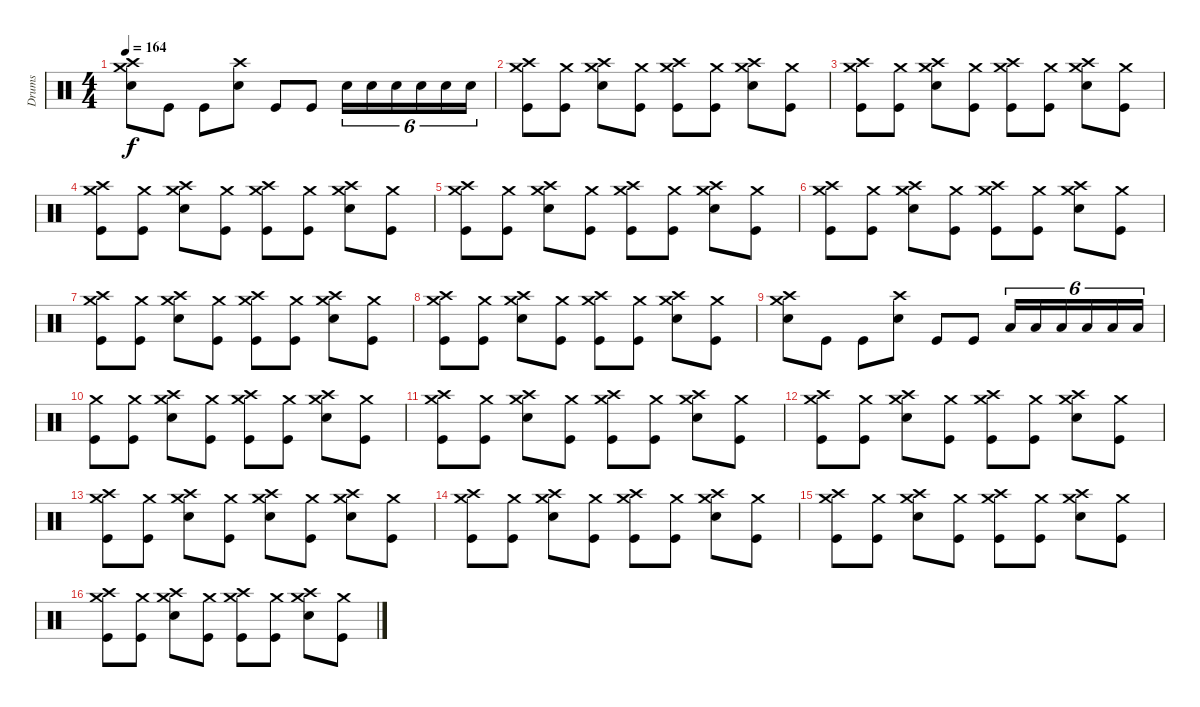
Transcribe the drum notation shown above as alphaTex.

\track ("Drums" "Drums") {instrument percussion}
\staff {score}
\articulation defaults
\ts (4 4)
\tempo 164
\clef neutral
\ks c
("Snare (hit) 2" "Crash high (hit)" "Crash medium (hit)").8{dy f} "Kick (hit)".8 "Kick (hit)".8 ("Snare (hit) 2" "Crash high (hit)").8 "Kick (hit)".8 "Kick (hit)".8 "Snare (hit) 2".16{tu (6 4)} "Snare (hit) 2".16{tu (6 4)} "Snare (hit) 2".16{tu (6 4)} "Snare (hit) 2".16{tu (6 4)} "Snare (hit) 2".16{tu (6 4)} "Snare (hit) 2".16{tu (6 4)} |
("Crash medium (hit)" "Kick (hit)" "Crash high (hit)").8 ("Crash medium (hit)" "Kick (hit)").8 ("Snare (hit) 2" "Crash medium (hit)" "Crash high (hit)").8 ("Crash medium (hit)" "Kick (hit)").8 ("Crash medium (hit)" "Kick (hit)" "Crash high (hit)").8 ("Crash medium (hit)" "Kick (hit)").8 ("Snare (hit) 2" "Crash medium (hit)" "Crash high (hit)").8 ("Crash medium (hit)" "Kick (hit)").8 |
("Crash medium (hit)" "Kick (hit)" "Crash high (hit)").8 ("Crash medium (hit)" "Kick (hit)").8 ("Snare (hit) 2" "Crash medium (hit)" "Crash high (hit)").8 ("Crash medium (hit)" "Kick (hit)").8 ("Crash medium (hit)" "Kick (hit)" "Crash high (hit)").8 ("Crash medium (hit)" "Kick (hit)").8 ("Snare (hit) 2" "Crash medium (hit)" "Crash high (hit)").8 ("Crash medium (hit)" "Kick (hit)").8 |
("Crash medium (hit)" "Kick (hit)" "Crash high (hit)").8 ("Crash medium (hit)" "Kick (hit)").8 ("Snare (hit) 2" "Crash medium (hit)" "Crash high (hit)").8 ("Crash medium (hit)" "Kick (hit)").8 ("Crash medium (hit)" "Kick (hit)" "Crash high (hit)").8 ("Crash medium (hit)" "Kick (hit)").8 ("Snare (hit) 2" "Crash medium (hit)" "Crash high (hit)").8 ("Crash medium (hit)" "Kick (hit)").8 |
("Crash medium (hit)" "Kick (hit)" "Crash high (hit)").8 ("Crash medium (hit)" "Kick (hit)").8 ("Snare (hit) 2" "Crash medium (hit)" "Crash high (hit)").8 ("Crash medium (hit)" "Kick (hit)").8 ("Crash medium (hit)" "Kick (hit)" "Crash high (hit)").8 ("Crash medium (hit)" "Kick (hit)").8 ("Snare (hit) 2" "Crash medium (hit)" "Crash high (hit)").8 ("Crash medium (hit)" "Kick (hit)").8 |
("Crash medium (hit)" "Kick (hit)" "Crash high (hit)").8 ("Crash medium (hit)" "Kick (hit)").8 ("Snare (hit) 2" "Crash medium (hit)" "Crash high (hit)").8 ("Crash medium (hit)" "Kick (hit)").8 ("Crash medium (hit)" "Kick (hit)" "Crash high (hit)").8 ("Crash medium (hit)" "Kick (hit)").8 ("Snare (hit) 2" "Crash medium (hit)" "Crash high (hit)").8 ("Crash medium (hit)" "Kick (hit)").8 |
("Crash medium (hit)" "Kick (hit)" "Crash high (hit)").8 ("Crash medium (hit)" "Kick (hit)").8 ("Snare (hit) 2" "Crash medium (hit)" "Crash high (hit)").8 ("Crash medium (hit)" "Kick (hit)").8 ("Crash medium (hit)" "Kick (hit)" "Crash high (hit)").8 ("Crash medium (hit)" "Kick (hit)").8 ("Snare (hit) 2" "Crash medium (hit)" "Crash high (hit)").8 ("Crash medium (hit)" "Kick (hit)").8 |
("Crash medium (hit)" "Kick (hit)" "Crash high (hit)").8 ("Crash medium (hit)" "Kick (hit)").8 ("Snare (hit) 2" "Crash medium (hit)" "Crash high (hit)").8 ("Crash medium (hit)" "Kick (hit)").8 ("Crash medium (hit)" "Kick (hit)" "Crash high (hit)").8 ("Crash medium (hit)" "Kick (hit)").8 ("Snare (hit) 2" "Crash medium (hit)" "Crash high (hit)").8 ("Crash medium (hit)" "Kick (hit)").8 |
("Snare (hit) 2" "Crash medium (hit)" "Crash high (hit)").8 "Kick (hit)".8 "Kick (hit)".8 ("Snare (hit) 2" "Crash high (hit)").8 "Kick (hit)".8 "Kick (hit)".8 "Low Floor Tom (hit)".16{tu (6 4)} "Low Floor Tom (hit)".16{tu (6 4)} "Low Floor Tom (hit)".16{tu (6 4)} "Low Floor Tom (hit)".16{tu (6 4)} "Low Floor Tom (hit)".16{tu (6 4)} "Low Floor Tom (hit)".16{tu (6 4)} |
("Crash medium (hit)" "Kick (hit)").8 ("Crash medium (hit)" "Kick (hit)").8 ("Snare (hit) 2" "Crash medium (hit)" "Crash high (hit)").8 ("Crash medium (hit)" "Kick (hit)").8 ("Crash medium (hit)" "Kick (hit)" "Crash high (hit)").8 ("Crash medium (hit)" "Kick (hit)").8 ("Snare (hit) 2" "Crash medium (hit)" "Crash high (hit)").8 ("Crash medium (hit)" "Kick (hit)").8 |
("Crash medium (hit)" "Kick (hit)" "Crash high (hit)").8 ("Crash medium (hit)" "Kick (hit)").8 ("Snare (hit) 2" "Crash medium (hit)" "Crash high (hit)").8 ("Crash medium (hit)" "Kick (hit)").8 ("Crash medium (hit)" "Kick (hit)" "Crash high (hit)").8 ("Crash medium (hit)" "Kick (hit)").8 ("Snare (hit) 2" "Crash medium (hit)" "Crash high (hit)").8 ("Crash medium (hit)" "Kick (hit)").8 |
("Crash medium (hit)" "Kick (hit)" "Crash high (hit)").8 ("Crash medium (hit)" "Kick (hit)").8 ("Snare (hit) 2" "Crash medium (hit)" "Crash high (hit)").8 ("Crash medium (hit)" "Kick (hit)").8 ("Crash medium (hit)" "Kick (hit)" "Crash high (hit)").8 ("Crash medium (hit)" "Kick (hit)").8 ("Snare (hit) 2" "Crash medium (hit)" "Crash high (hit)").8 ("Crash medium (hit)" "Kick (hit)").8 |
("Crash medium (hit)" "Kick (hit)" "Crash high (hit)").8 ("Crash medium (hit)" "Kick (hit)").8 ("Snare (hit) 2" "Crash medium (hit)" "Crash high (hit)").8 ("Crash medium (hit)" "Kick (hit)").8 ("Snare (hit) 2" "Crash medium (hit)" "Crash high (hit)").8 ("Crash medium (hit)" "Kick (hit)").8 ("Snare (hit) 2" "Crash medium (hit)" "Crash high (hit)").8 ("Crash medium (hit)" "Kick (hit)").8 |
("Crash medium (hit)" "Kick (hit)" "Crash high (hit)").8 ("Crash medium (hit)" "Kick (hit)").8 ("Snare (hit) 2" "Crash medium (hit)" "Crash high (hit)").8 ("Crash medium (hit)" "Kick (hit)").8 ("Crash medium (hit)" "Kick (hit)" "Crash high (hit)").8 ("Crash medium (hit)" "Kick (hit)").8 ("Snare (hit) 2" "Crash medium (hit)" "Crash high (hit)").8 ("Crash medium (hit)" "Kick (hit)").8 |
("Crash medium (hit)" "Kick (hit)" "Crash high (hit)").8 ("Crash medium (hit)" "Kick (hit)").8 ("Snare (hit) 2" "Crash medium (hit)" "Crash high (hit)").8 ("Crash medium (hit)" "Kick (hit)").8 ("Crash medium (hit)" "Kick (hit)" "Crash high (hit)").8 ("Crash medium (hit)" "Kick (hit)").8 ("Snare (hit) 2" "Crash medium (hit)" "Crash high (hit)").8 ("Crash medium (hit)" "Kick (hit)").8 |
("Crash medium (hit)" "Kick (hit)" "Crash high (hit)").8 ("Crash medium (hit)" "Kick (hit)").8 ("Snare (hit) 2" "Crash medium (hit)" "Crash high (hit)").8 ("Crash medium (hit)" "Kick (hit)").8 ("Crash medium (hit)" "Kick (hit)" "Crash high (hit)").8 ("Crash medium (hit)" "Kick (hit)").8 ("Snare (hit) 2" "Crash medium (hit)" "Crash high (hit)").8 ("Crash medium (hit)" "Kick (hit)").8
